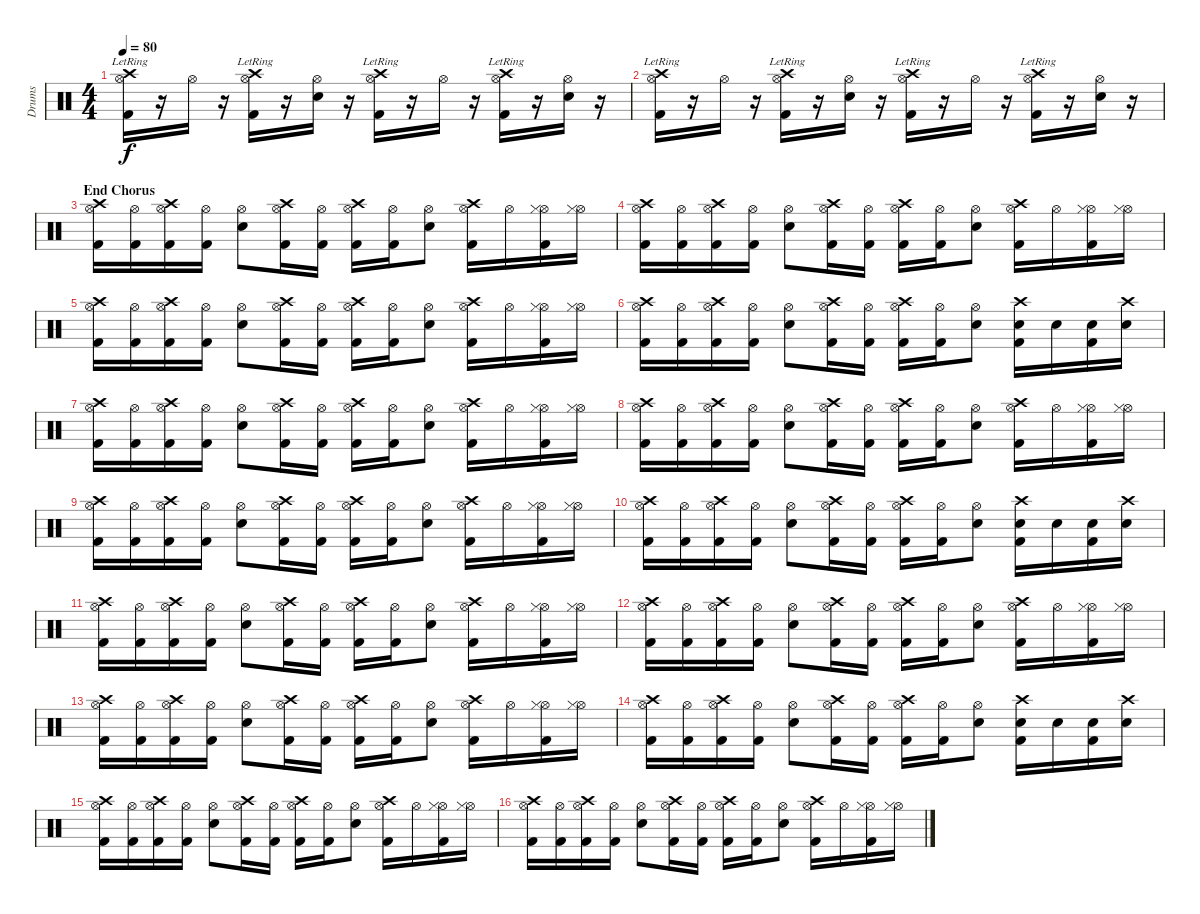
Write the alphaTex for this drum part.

\track ("Drums" "Drums") {instrument percussion}
\staff {score}
\articulation defaults
\ts (4 4)
\tempo 80
\clef neutral
\ks c
("Crash high (hit)"{lr} "Hi-Hat (open)" "Kick (hit) 2").16{dy f} r.16 "Hi-Hat (open)".16 r.16 ("Crash high (hit)"{lr} "Hi-Hat (open)" "Kick (hit) 2").16 r.16 ("Hi-Hat (open)" "Snare (hit) 2").16 r.16 ("Crash high (hit)"{lr} "Hi-Hat (open)" "Kick (hit) 2").16 r.16 "Hi-Hat (open)".16 r.16 ("Crash high (hit)"{lr} "Hi-Hat (open)" "Kick (hit) 2").16 r.16 ("Hi-Hat (open)" "Snare (hit) 2").16 r.16 |
("Crash high (hit)"{lr} "Hi-Hat (open)" "Kick (hit) 2").16 r.16 "Hi-Hat (open)".16 r.16 ("Crash high (hit)"{lr} "Hi-Hat (open)" "Kick (hit) 2").16 r.16 ("Hi-Hat (open)" "Snare (hit) 2").16 r.16 ("Crash high (hit)"{lr} "Hi-Hat (open)" "Kick (hit) 2").16 r.16 "Hi-Hat (open)".16 r.16 ("Crash high (hit)"{lr} "Hi-Hat (open)" "Kick (hit) 2").16 r.16 ("Hi-Hat (open)" "Snare (hit) 2").16 r.16 |
\section ("" "End Chorus")
("Crash high (hit)" "Hi-Hat (open)" "Kick (hit) 2").16 ("Hi-Hat (open)" "Kick (hit) 2").16 ("Crash high (hit)" "Hi-Hat (open)" "Kick (hit) 2").16 ("Hi-Hat (open)" "Kick (hit) 2").16 ("Hi-Hat (open)" "Snare (hit) 2").8 ("Crash high (hit)" "Hi-Hat (open)" "Kick (hit) 2").16 ("Hi-Hat (open)" "Kick (hit) 2").16 ("Crash high (hit)" "Hi-Hat (open)" "Kick (hit) 2").16 ("Hi-Hat (open)" "Kick (hit) 2").16 ("Hi-Hat (open)" "Snare (hit) 2").8 ("Crash high (hit)" "Hi-Hat (open)" "Kick (hit) 2").16 "Hi-Hat (open)".16 ("Hi-Hat (open)" "Hi-Hat (closed)" "Kick (hit) 2").16 ("Hi-Hat (open)" "Hi-Hat (closed)").16 |
("Crash high (hit)" "Hi-Hat (open)" "Kick (hit) 2").16 ("Hi-Hat (open)" "Kick (hit) 2").16 ("Crash high (hit)" "Hi-Hat (open)" "Kick (hit) 2").16 ("Hi-Hat (open)" "Kick (hit) 2").16 ("Hi-Hat (open)" "Snare (hit) 2").8 ("Crash high (hit)" "Hi-Hat (open)" "Kick (hit) 2").16 ("Hi-Hat (open)" "Kick (hit) 2").16 ("Crash high (hit)" "Hi-Hat (open)" "Kick (hit) 2").16 ("Hi-Hat (open)" "Kick (hit) 2").16 ("Hi-Hat (open)" "Snare (hit) 2").8 ("Crash high (hit)" "Hi-Hat (open)" "Kick (hit) 2").16 "Hi-Hat (open)".16 ("Hi-Hat (open)" "Hi-Hat (closed)" "Kick (hit) 2").16 ("Hi-Hat (open)" "Hi-Hat (closed)").16 |
("Crash high (hit)" "Hi-Hat (open)" "Kick (hit) 2").16 ("Hi-Hat (open)" "Kick (hit) 2").16 ("Crash high (hit)" "Hi-Hat (open)" "Kick (hit) 2").16 ("Hi-Hat (open)" "Kick (hit) 2").16 ("Hi-Hat (open)" "Snare (hit) 2").8 ("Crash high (hit)" "Hi-Hat (open)" "Kick (hit) 2").16 ("Hi-Hat (open)" "Kick (hit) 2").16 ("Crash high (hit)" "Hi-Hat (open)" "Kick (hit) 2").16 ("Hi-Hat (open)" "Kick (hit) 2").16 ("Hi-Hat (open)" "Snare (hit) 2").8 ("Crash high (hit)" "Hi-Hat (open)" "Kick (hit) 2").16 "Hi-Hat (open)".16 ("Hi-Hat (open)" "Hi-Hat (closed)" "Kick (hit) 2").16 ("Hi-Hat (open)" "Hi-Hat (closed)").16 |
("Crash high (hit)" "Hi-Hat (open)" "Kick (hit) 2").16 ("Hi-Hat (open)" "Kick (hit) 2").16 ("Crash high (hit)" "Hi-Hat (open)" "Kick (hit) 2").16 ("Hi-Hat (open)" "Kick (hit) 2").16 ("Hi-Hat (open)" "Snare (hit) 2").8 ("Crash high (hit)" "Hi-Hat (open)" "Kick (hit) 2").16 ("Hi-Hat (open)" "Kick (hit) 2").16 ("Crash high (hit)" "Hi-Hat (open)" "Kick (hit) 2").16 ("Hi-Hat (open)" "Kick (hit) 2").16 ("Hi-Hat (open)" "Snare (hit) 2").8 ("Crash high (hit)" "Snare (hit) 2" "Kick (hit) 2").16 "Snare (hit) 2".16 ("Snare (hit) 2" "Kick (hit) 2").16 ("Crash high (hit)" "Snare (hit) 2").16 |
("Crash high (hit)" "Hi-Hat (open)" "Kick (hit) 2").16 ("Hi-Hat (open)" "Kick (hit) 2").16 ("Crash high (hit)" "Hi-Hat (open)" "Kick (hit) 2").16 ("Hi-Hat (open)" "Kick (hit) 2").16 ("Hi-Hat (open)" "Snare (hit) 2").8 ("Crash high (hit)" "Hi-Hat (open)" "Kick (hit) 2").16 ("Hi-Hat (open)" "Kick (hit) 2").16 ("Crash high (hit)" "Hi-Hat (open)" "Kick (hit) 2").16 ("Hi-Hat (open)" "Kick (hit) 2").16 ("Hi-Hat (open)" "Snare (hit) 2").8 ("Crash high (hit)" "Hi-Hat (open)" "Kick (hit) 2").16 "Hi-Hat (open)".16 ("Hi-Hat (open)" "Hi-Hat (closed)" "Kick (hit) 2").16 ("Hi-Hat (open)" "Hi-Hat (closed)").16 |
("Crash high (hit)" "Hi-Hat (open)" "Kick (hit) 2").16 ("Hi-Hat (open)" "Kick (hit) 2").16 ("Crash high (hit)" "Hi-Hat (open)" "Kick (hit) 2").16 ("Hi-Hat (open)" "Kick (hit) 2").16 ("Hi-Hat (open)" "Snare (hit) 2").8 ("Crash high (hit)" "Hi-Hat (open)" "Kick (hit) 2").16 ("Hi-Hat (open)" "Kick (hit) 2").16 ("Crash high (hit)" "Hi-Hat (open)" "Kick (hit) 2").16 ("Hi-Hat (open)" "Kick (hit) 2").16 ("Hi-Hat (open)" "Snare (hit) 2").8 ("Crash high (hit)" "Hi-Hat (open)" "Kick (hit) 2").16 "Hi-Hat (open)".16 ("Hi-Hat (open)" "Hi-Hat (closed)" "Kick (hit) 2").16 ("Hi-Hat (open)" "Hi-Hat (closed)").16 |
("Crash high (hit)" "Hi-Hat (open)" "Kick (hit) 2").16 ("Hi-Hat (open)" "Kick (hit) 2").16 ("Crash high (hit)" "Hi-Hat (open)" "Kick (hit) 2").16 ("Hi-Hat (open)" "Kick (hit) 2").16 ("Hi-Hat (open)" "Snare (hit) 2").8 ("Crash high (hit)" "Hi-Hat (open)" "Kick (hit) 2").16 ("Hi-Hat (open)" "Kick (hit) 2").16 ("Crash high (hit)" "Hi-Hat (open)" "Kick (hit) 2").16 ("Hi-Hat (open)" "Kick (hit) 2").16 ("Hi-Hat (open)" "Snare (hit) 2").8 ("Crash high (hit)" "Hi-Hat (open)" "Kick (hit) 2").16 "Hi-Hat (open)".16 ("Hi-Hat (open)" "Hi-Hat (closed)" "Kick (hit) 2").16 ("Hi-Hat (open)" "Hi-Hat (closed)").16 |
("Crash high (hit)" "Hi-Hat (open)" "Kick (hit) 2").16 ("Hi-Hat (open)" "Kick (hit) 2").16 ("Crash high (hit)" "Hi-Hat (open)" "Kick (hit) 2").16 ("Hi-Hat (open)" "Kick (hit) 2").16 ("Hi-Hat (open)" "Snare (hit) 2").8 ("Crash high (hit)" "Hi-Hat (open)" "Kick (hit) 2").16 ("Hi-Hat (open)" "Kick (hit) 2").16 ("Crash high (hit)" "Hi-Hat (open)" "Kick (hit) 2").16 ("Hi-Hat (open)" "Kick (hit) 2").16 ("Hi-Hat (open)" "Snare (hit) 2").8 ("Crash high (hit)" "Snare (hit) 2" "Kick (hit) 2").16 "Snare (hit) 2".16 ("Snare (hit) 2" "Kick (hit) 2").16 ("Crash high (hit)" "Snare (hit) 2").16 |
("Crash high (hit)" "Hi-Hat (open)" "Kick (hit) 2").16 ("Hi-Hat (open)" "Kick (hit) 2").16 ("Crash high (hit)" "Hi-Hat (open)" "Kick (hit) 2").16 ("Hi-Hat (open)" "Kick (hit) 2").16 ("Hi-Hat (open)" "Snare (hit) 2").8 ("Crash high (hit)" "Hi-Hat (open)" "Kick (hit) 2").16 ("Hi-Hat (open)" "Kick (hit) 2").16 ("Crash high (hit)" "Hi-Hat (open)" "Kick (hit) 2").16 ("Hi-Hat (open)" "Kick (hit) 2").16 ("Hi-Hat (open)" "Snare (hit) 2").8 ("Crash high (hit)" "Hi-Hat (open)" "Kick (hit) 2").16 "Hi-Hat (open)".16 ("Hi-Hat (open)" "Hi-Hat (closed)" "Kick (hit) 2").16 ("Hi-Hat (open)" "Hi-Hat (closed)").16 |
("Crash high (hit)" "Hi-Hat (open)" "Kick (hit) 2").16 ("Hi-Hat (open)" "Kick (hit) 2").16 ("Crash high (hit)" "Hi-Hat (open)" "Kick (hit) 2").16 ("Hi-Hat (open)" "Kick (hit) 2").16 ("Hi-Hat (open)" "Snare (hit) 2").8 ("Crash high (hit)" "Hi-Hat (open)" "Kick (hit) 2").16 ("Hi-Hat (open)" "Kick (hit) 2").16 ("Crash high (hit)" "Hi-Hat (open)" "Kick (hit) 2").16 ("Hi-Hat (open)" "Kick (hit) 2").16 ("Hi-Hat (open)" "Snare (hit) 2").8 ("Crash high (hit)" "Hi-Hat (open)" "Kick (hit) 2").16 "Hi-Hat (open)".16 ("Hi-Hat (open)" "Hi-Hat (closed)" "Kick (hit) 2").16 ("Hi-Hat (open)" "Hi-Hat (closed)").16 |
("Crash high (hit)" "Hi-Hat (open)" "Kick (hit) 2").16 ("Hi-Hat (open)" "Kick (hit) 2").16 ("Crash high (hit)" "Hi-Hat (open)" "Kick (hit) 2").16 ("Hi-Hat (open)" "Kick (hit) 2").16 ("Hi-Hat (open)" "Snare (hit) 2").8 ("Crash high (hit)" "Hi-Hat (open)" "Kick (hit) 2").16 ("Hi-Hat (open)" "Kick (hit) 2").16 ("Crash high (hit)" "Hi-Hat (open)" "Kick (hit) 2").16 ("Hi-Hat (open)" "Kick (hit) 2").16 ("Hi-Hat (open)" "Snare (hit) 2").8 ("Crash high (hit)" "Hi-Hat (open)" "Kick (hit) 2").16 "Hi-Hat (open)".16 ("Hi-Hat (open)" "Hi-Hat (closed)" "Kick (hit) 2").16 ("Hi-Hat (open)" "Hi-Hat (closed)").16 |
("Crash high (hit)" "Hi-Hat (open)" "Kick (hit) 2").16 ("Hi-Hat (open)" "Kick (hit) 2").16 ("Crash high (hit)" "Hi-Hat (open)" "Kick (hit) 2").16 ("Hi-Hat (open)" "Kick (hit) 2").16 ("Hi-Hat (open)" "Snare (hit) 2").8 ("Crash high (hit)" "Hi-Hat (open)" "Kick (hit) 2").16 ("Hi-Hat (open)" "Kick (hit) 2").16 ("Crash high (hit)" "Hi-Hat (open)" "Kick (hit) 2").16 ("Hi-Hat (open)" "Kick (hit) 2").16 ("Hi-Hat (open)" "Snare (hit) 2").8 ("Crash high (hit)" "Snare (hit) 2" "Kick (hit) 2").16 "Snare (hit) 2".16 ("Snare (hit) 2" "Kick (hit) 2").16 ("Crash high (hit)" "Snare (hit) 2").16 |
("Crash high (hit)" "Hi-Hat (open)" "Kick (hit) 2").16 ("Hi-Hat (open)" "Kick (hit) 2").16 ("Crash high (hit)" "Hi-Hat (open)" "Kick (hit) 2").16 ("Hi-Hat (open)" "Kick (hit) 2").16 ("Hi-Hat (open)" "Snare (hit) 2").8 ("Crash high (hit)" "Hi-Hat (open)" "Kick (hit) 2").16 ("Hi-Hat (open)" "Kick (hit) 2").16 ("Crash high (hit)" "Hi-Hat (open)" "Kick (hit) 2").16 ("Hi-Hat (open)" "Kick (hit) 2").16 ("Hi-Hat (open)" "Snare (hit) 2").8 ("Crash high (hit)" "Hi-Hat (open)" "Kick (hit) 2").16 "Hi-Hat (open)".16 ("Hi-Hat (open)" "Hi-Hat (closed)" "Kick (hit) 2").16 ("Hi-Hat (open)" "Hi-Hat (closed)").16 |
("Crash high (hit)" "Hi-Hat (open)" "Kick (hit) 2").16 ("Hi-Hat (open)" "Kick (hit) 2").16 ("Crash high (hit)" "Hi-Hat (open)" "Kick (hit) 2").16 ("Hi-Hat (open)" "Kick (hit) 2").16 ("Hi-Hat (open)" "Snare (hit) 2").8 ("Crash high (hit)" "Hi-Hat (open)" "Kick (hit) 2").16 ("Hi-Hat (open)" "Kick (hit) 2").16 ("Crash high (hit)" "Hi-Hat (open)" "Kick (hit) 2").16 ("Hi-Hat (open)" "Kick (hit) 2").16 ("Hi-Hat (open)" "Snare (hit) 2").8 ("Crash high (hit)" "Hi-Hat (open)" "Kick (hit) 2").16 "Hi-Hat (open)".16 ("Hi-Hat (open)" "Hi-Hat (closed)" "Kick (hit) 2").16 ("Hi-Hat (open)" "Hi-Hat (closed)").16
